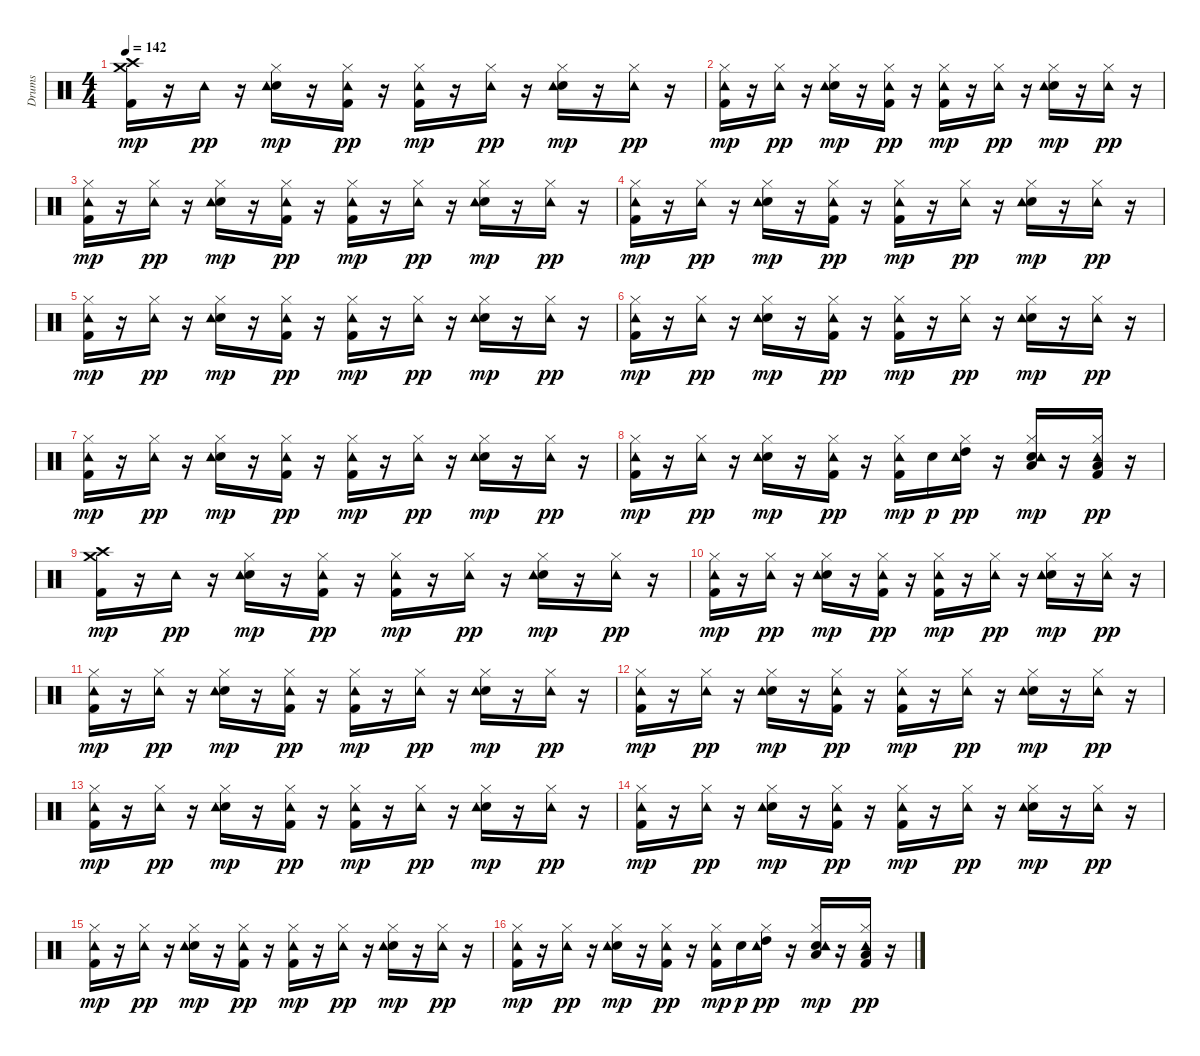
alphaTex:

\track ("Drums" "Drums") {instrument percussion}
\staff {score}
\articulation defaults
\ts (4 4)
\tempo 142
\clef neutral
\ks c
("Kick (hit) 2" "Crash medium (hit)" "Crash high (hit)").16{dy mp} r.16 "Tambourine (hit)".16{dy pp} r.16 ("Snare (hit) 2" "Hi-Hat (closed)" "Tambourine (hit)").16{dy mp} r.16 ("Kick (hit) 2" "Hi-Hat (closed)" "Tambourine (hit)").16{dy pp} r.16 ("Kick (hit) 2" "Hi-Hat (closed)" "Tambourine (hit)").16{dy mp} r.16 ("Hi-Hat (closed)" "Tambourine (hit)").16{dy pp} r.16 ("Snare (hit) 2" "Hi-Hat (closed)" "Tambourine (hit)").16{dy mp} r.16 ("Hi-Hat (closed)" "Tambourine (hit)").16{dy pp} r.16 |
("Kick (hit) 2" "Hi-Hat (closed)" "Tambourine (hit)").16{dy mp} r.16 ("Hi-Hat (closed)" "Tambourine (hit)").16{dy pp} r.16 ("Snare (hit) 2" "Hi-Hat (closed)" "Tambourine (hit)").16{dy mp} r.16 ("Kick (hit) 2" "Hi-Hat (closed)" "Tambourine (hit)").16{dy pp} r.16 ("Kick (hit) 2" "Hi-Hat (closed)" "Tambourine (hit)").16{dy mp} r.16 ("Hi-Hat (closed)" "Tambourine (hit)").16{dy pp} r.16 ("Snare (hit) 2" "Hi-Hat (closed)" "Tambourine (hit)").16{dy mp} r.16 ("Hi-Hat (closed)" "Tambourine (hit)").16{dy pp} r.16 |
("Kick (hit) 2" "Hi-Hat (closed)" "Tambourine (hit)").16{dy mp} r.16 ("Hi-Hat (closed)" "Tambourine (hit)").16{dy pp} r.16 ("Snare (hit) 2" "Hi-Hat (closed)" "Tambourine (hit)").16{dy mp} r.16 ("Kick (hit) 2" "Hi-Hat (closed)" "Tambourine (hit)").16{dy pp} r.16 ("Kick (hit) 2" "Hi-Hat (closed)" "Tambourine (hit)").16{dy mp} r.16 ("Hi-Hat (closed)" "Tambourine (hit)").16{dy pp} r.16 ("Snare (hit) 2" "Hi-Hat (closed)" "Tambourine (hit)").16{dy mp} r.16 ("Hi-Hat (closed)" "Tambourine (hit)").16{dy pp} r.16 |
("Kick (hit) 2" "Hi-Hat (closed)" "Tambourine (hit)").16{dy mp} r.16 ("Hi-Hat (closed)" "Tambourine (hit)").16{dy pp} r.16 ("Snare (hit) 2" "Hi-Hat (closed)" "Tambourine (hit)").16{dy mp} r.16 ("Kick (hit) 2" "Hi-Hat (closed)" "Tambourine (hit)").16{dy pp} r.16 ("Kick (hit) 2" "Hi-Hat (closed)" "Tambourine (hit)").16{dy mp} r.16 ("Hi-Hat (closed)" "Tambourine (hit)").16{dy pp} r.16 ("Snare (hit) 2" "Hi-Hat (closed)" "Tambourine (hit)").16{dy mp} r.16 ("Hi-Hat (closed)" "Tambourine (hit)").16{dy pp} r.16 |
("Kick (hit) 2" "Hi-Hat (closed)" "Tambourine (hit)").16{dy mp} r.16 ("Hi-Hat (closed)" "Tambourine (hit)").16{dy pp} r.16 ("Snare (hit) 2" "Hi-Hat (closed)" "Tambourine (hit)").16{dy mp} r.16 ("Kick (hit) 2" "Hi-Hat (closed)" "Tambourine (hit)").16{dy pp} r.16 ("Kick (hit) 2" "Hi-Hat (closed)" "Tambourine (hit)").16{dy mp} r.16 ("Hi-Hat (closed)" "Tambourine (hit)").16{dy pp} r.16 ("Snare (hit) 2" "Hi-Hat (closed)" "Tambourine (hit)").16{dy mp} r.16 ("Hi-Hat (closed)" "Tambourine (hit)").16{dy pp} r.16 |
("Kick (hit) 2" "Hi-Hat (closed)" "Tambourine (hit)").16{dy mp} r.16 ("Hi-Hat (closed)" "Tambourine (hit)").16{dy pp} r.16 ("Snare (hit) 2" "Hi-Hat (closed)" "Tambourine (hit)").16{dy mp} r.16 ("Kick (hit) 2" "Hi-Hat (closed)" "Tambourine (hit)").16{dy pp} r.16 ("Kick (hit) 2" "Hi-Hat (closed)" "Tambourine (hit)").16{dy mp} r.16 ("Hi-Hat (closed)" "Tambourine (hit)").16{dy pp} r.16 ("Snare (hit) 2" "Hi-Hat (closed)" "Tambourine (hit)").16{dy mp} r.16 ("Hi-Hat (closed)" "Tambourine (hit)").16{dy pp} r.16 |
("Kick (hit) 2" "Hi-Hat (closed)" "Tambourine (hit)").16{dy mp} r.16 ("Hi-Hat (closed)" "Tambourine (hit)").16{dy pp} r.16 ("Snare (hit) 2" "Hi-Hat (closed)" "Tambourine (hit)").16{dy mp} r.16 ("Kick (hit) 2" "Hi-Hat (closed)" "Tambourine (hit)").16{dy pp} r.16 ("Kick (hit) 2" "Hi-Hat (closed)" "Tambourine (hit)").16{dy mp} r.16 ("Hi-Hat (closed)" "Tambourine (hit)").16{dy pp} r.16 ("Snare (hit) 2" "Hi-Hat (closed)" "Tambourine (hit)").16{dy mp} r.16 ("Hi-Hat (closed)" "Tambourine (hit)").16{dy pp} r.16 |
("Kick (hit) 2" "Hi-Hat (closed)" "Tambourine (hit)").16{dy mp} r.16 ("Hi-Hat (closed)" "Tambourine (hit)").16{dy pp} r.16 ("Snare (hit) 2" "Hi-Hat (closed)" "Tambourine (hit)").16{dy mp} r.16 ("Kick (hit) 2" "Hi-Hat (closed)" "Tambourine (hit)").16{dy pp} r.16 ("Kick (hit) 2" "Hi-Hat (closed)" "Tambourine (hit)").16{dy mp} "Snare (hit) 2".16{dy p} ("Hi-Hat (closed)" "High Tom (hit)" "Tambourine (hit)").16{dy pp} r.16 ("Snare (hit) 2" "Hi-Hat (closed)" "Low Tom (hit)" "Tambourine (hit)").16{dy mp} r.16 ("Kick (hit) 2" "Hi-Hat (closed)" "Low Floor Tom (hit)" "Tambourine (hit)").16{dy pp} r.16 |
("Kick (hit) 2" "Crash medium (hit)" "Crash high (hit)").16{dy mp} r.16 "Tambourine (hit)".16{dy pp} r.16 ("Snare (hit) 2" "Hi-Hat (closed)" "Tambourine (hit)").16{dy mp} r.16 ("Kick (hit) 2" "Hi-Hat (closed)" "Tambourine (hit)").16{dy pp} r.16 ("Kick (hit) 2" "Hi-Hat (closed)" "Tambourine (hit)").16{dy mp} r.16 ("Hi-Hat (closed)" "Tambourine (hit)").16{dy pp} r.16 ("Snare (hit) 2" "Hi-Hat (closed)" "Tambourine (hit)").16{dy mp} r.16 ("Hi-Hat (closed)" "Tambourine (hit)").16{dy pp} r.16 |
("Kick (hit) 2" "Hi-Hat (closed)" "Tambourine (hit)").16{dy mp} r.16 ("Hi-Hat (closed)" "Tambourine (hit)").16{dy pp} r.16 ("Snare (hit) 2" "Hi-Hat (closed)" "Tambourine (hit)").16{dy mp} r.16 ("Kick (hit) 2" "Hi-Hat (closed)" "Tambourine (hit)").16{dy pp} r.16 ("Kick (hit) 2" "Hi-Hat (closed)" "Tambourine (hit)").16{dy mp} r.16 ("Hi-Hat (closed)" "Tambourine (hit)").16{dy pp} r.16 ("Snare (hit) 2" "Hi-Hat (closed)" "Tambourine (hit)").16{dy mp} r.16 ("Hi-Hat (closed)" "Tambourine (hit)").16{dy pp} r.16 |
("Kick (hit) 2" "Hi-Hat (closed)" "Tambourine (hit)").16{dy mp} r.16 ("Hi-Hat (closed)" "Tambourine (hit)").16{dy pp} r.16 ("Snare (hit) 2" "Hi-Hat (closed)" "Tambourine (hit)").16{dy mp} r.16 ("Kick (hit) 2" "Hi-Hat (closed)" "Tambourine (hit)").16{dy pp} r.16 ("Kick (hit) 2" "Hi-Hat (closed)" "Tambourine (hit)").16{dy mp} r.16 ("Hi-Hat (closed)" "Tambourine (hit)").16{dy pp} r.16 ("Snare (hit) 2" "Hi-Hat (closed)" "Tambourine (hit)").16{dy mp} r.16 ("Hi-Hat (closed)" "Tambourine (hit)").16{dy pp} r.16 |
("Kick (hit) 2" "Hi-Hat (closed)" "Tambourine (hit)").16{dy mp} r.16 ("Hi-Hat (closed)" "Tambourine (hit)").16{dy pp} r.16 ("Snare (hit) 2" "Hi-Hat (closed)" "Tambourine (hit)").16{dy mp} r.16 ("Kick (hit) 2" "Hi-Hat (closed)" "Tambourine (hit)").16{dy pp} r.16 ("Kick (hit) 2" "Hi-Hat (closed)" "Tambourine (hit)").16{dy mp} r.16 ("Hi-Hat (closed)" "Tambourine (hit)").16{dy pp} r.16 ("Snare (hit) 2" "Hi-Hat (closed)" "Tambourine (hit)").16{dy mp} r.16 ("Hi-Hat (closed)" "Tambourine (hit)").16{dy pp} r.16 |
("Kick (hit) 2" "Hi-Hat (closed)" "Tambourine (hit)").16{dy mp} r.16 ("Hi-Hat (closed)" "Tambourine (hit)").16{dy pp} r.16 ("Snare (hit) 2" "Hi-Hat (closed)" "Tambourine (hit)").16{dy mp} r.16 ("Kick (hit) 2" "Hi-Hat (closed)" "Tambourine (hit)").16{dy pp} r.16 ("Kick (hit) 2" "Hi-Hat (closed)" "Tambourine (hit)").16{dy mp} r.16 ("Hi-Hat (closed)" "Tambourine (hit)").16{dy pp} r.16 ("Snare (hit) 2" "Hi-Hat (closed)" "Tambourine (hit)").16{dy mp} r.16 ("Hi-Hat (closed)" "Tambourine (hit)").16{dy pp} r.16 |
("Kick (hit) 2" "Hi-Hat (closed)" "Tambourine (hit)").16{dy mp} r.16 ("Hi-Hat (closed)" "Tambourine (hit)").16{dy pp} r.16 ("Snare (hit) 2" "Hi-Hat (closed)" "Tambourine (hit)").16{dy mp} r.16 ("Kick (hit) 2" "Hi-Hat (closed)" "Tambourine (hit)").16{dy pp} r.16 ("Kick (hit) 2" "Hi-Hat (closed)" "Tambourine (hit)").16{dy mp} r.16 ("Hi-Hat (closed)" "Tambourine (hit)").16{dy pp} r.16 ("Snare (hit) 2" "Hi-Hat (closed)" "Tambourine (hit)").16{dy mp} r.16 ("Hi-Hat (closed)" "Tambourine (hit)").16{dy pp} r.16 |
("Kick (hit) 2" "Hi-Hat (closed)" "Tambourine (hit)").16{dy mp} r.16 ("Hi-Hat (closed)" "Tambourine (hit)").16{dy pp} r.16 ("Snare (hit) 2" "Hi-Hat (closed)" "Tambourine (hit)").16{dy mp} r.16 ("Kick (hit) 2" "Hi-Hat (closed)" "Tambourine (hit)").16{dy pp} r.16 ("Kick (hit) 2" "Hi-Hat (closed)" "Tambourine (hit)").16{dy mp} r.16 ("Hi-Hat (closed)" "Tambourine (hit)").16{dy pp} r.16 ("Snare (hit) 2" "Hi-Hat (closed)" "Tambourine (hit)").16{dy mp} r.16 ("Hi-Hat (closed)" "Tambourine (hit)").16{dy pp} r.16 |
("Kick (hit) 2" "Hi-Hat (closed)" "Tambourine (hit)").16{dy mp} r.16 ("Hi-Hat (closed)" "Tambourine (hit)").16{dy pp} r.16 ("Snare (hit) 2" "Hi-Hat (closed)" "Tambourine (hit)").16{dy mp} r.16 ("Kick (hit) 2" "Hi-Hat (closed)" "Tambourine (hit)").16{dy pp} r.16 ("Kick (hit) 2" "Hi-Hat (closed)" "Tambourine (hit)").16{dy mp} "Snare (hit) 2".16{dy p} ("Hi-Hat (closed)" "High Tom (hit)" "Tambourine (hit)").16{dy pp} r.16 ("Snare (hit) 2" "Hi-Hat (closed)" "Low Tom (hit)" "Tambourine (hit)").16{dy mp} r.16 ("Kick (hit) 2" "Hi-Hat (closed)" "Low Floor Tom (hit)" "Tambourine (hit)").16{dy pp} r.16
